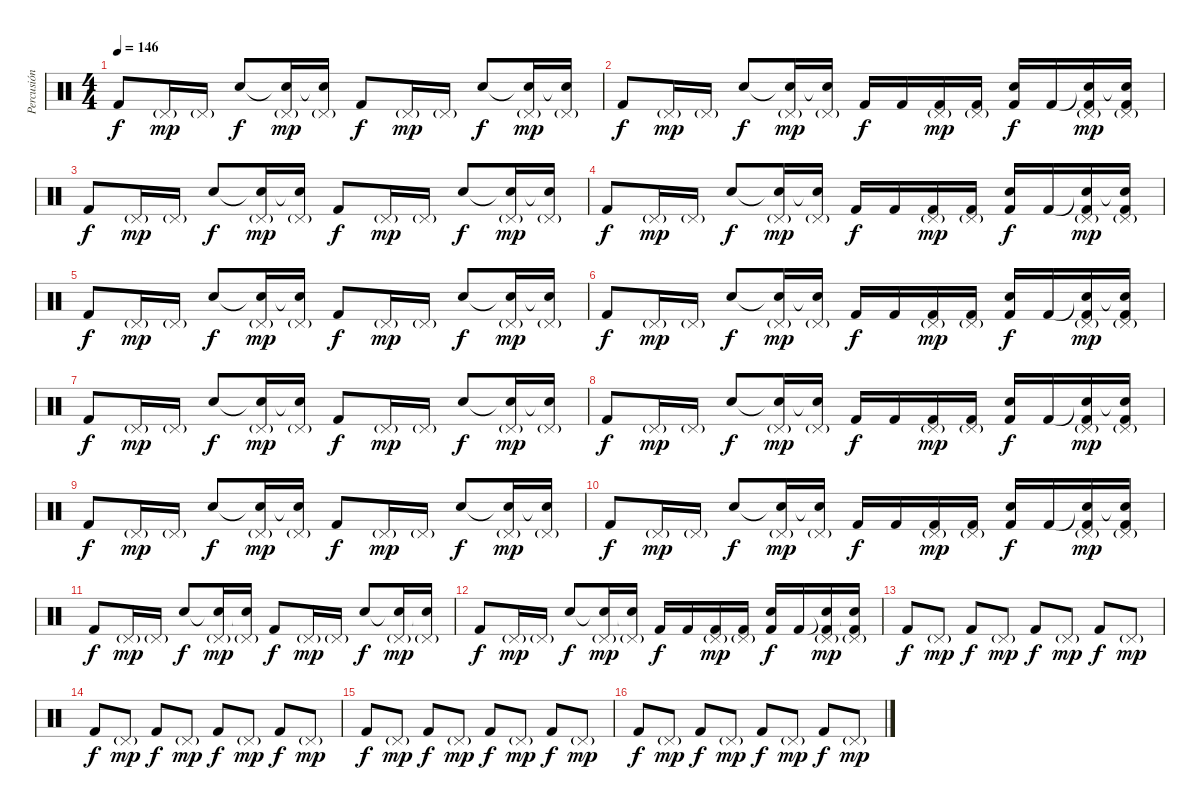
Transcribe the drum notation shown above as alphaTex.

\track ("Percusión" "Percusión") {instrument percussion}
\staff {score}
\articulation defaults
\ts (4 4)
\tempo 146
\clef neutral
\ks c "Kick (hit) 2".8{dy f} "Pedal Hi-Hat (hit)"{g}.16{dy mp} "Pedal Hi-Hat (hit)"{g}.16 "Snare (hit) 2".8{dy f}
("Snare (hit)"{t} "Pedal Hi-Hat (hit)"{g}).16{dy mp} ("Snare (hit)"{t} "Pedal Hi-Hat (hit)"{g}).16 "Kick (hit) 2".8{dy f} "Pedal Hi-Hat (hit)"{g}.16{dy mp} "Pedal Hi-Hat (hit)"{g}.16 "Snare (hit) 2".8{dy f} ("Snare (hit)"{t} "Pedal Hi-Hat (hit)"{g}).16{dy mp} ("Snare (hit)"{t} "Pedal Hi-Hat (hit)"{g}).16 |
"Kick (hit) 2".8{dy f} "Pedal Hi-Hat (hit)"{g}.16{dy mp} "Pedal Hi-Hat (hit)"{g}.16 "Snare (hit) 2".8{dy f} ("Snare (hit)"{t} "Pedal Hi-Hat (hit)"{g}).16{dy mp} ("Snare (hit)"{t} "Pedal Hi-Hat (hit)"{g}).16 "Kick (hit) 2".16{dy f} "Kick (hit) 2".16 ("Pedal Hi-Hat (hit)"{g} "Kick (hit) 2").16{dy mp} ("Pedal Hi-Hat (hit)"{g} "Kick (hit) 2").16 ("Snare (hit) 2" "Kick (hit) 2").16{dy f} "Kick (hit) 2".16 ("Snare (hit)"{t} "Pedal Hi-Hat (hit)"{g} "Kick (hit) 2").16{dy mp} ("Snare (hit)"{t} "Pedal Hi-Hat (hit)"{g} "Kick (hit) 2").16 |
"Kick (hit) 2".8{dy f} "Pedal Hi-Hat (hit)"{g}.16{dy mp} "Pedal Hi-Hat (hit)"{g}.16 "Snare (hit) 2".8{dy f} ("Snare (hit)"{t} "Pedal Hi-Hat (hit)"{g}).16{dy mp} ("Snare (hit)"{t} "Pedal Hi-Hat (hit)"{g}).16 "Kick (hit) 2".8{dy f} "Pedal Hi-Hat (hit)"{g}.16{dy mp} "Pedal Hi-Hat (hit)"{g}.16 "Snare (hit) 2".8{dy f} ("Snare (hit)"{t} "Pedal Hi-Hat (hit)"{g}).16{dy mp} ("Snare (hit)"{t} "Pedal Hi-Hat (hit)"{g}).16 |
"Kick (hit) 2".8{dy f} "Pedal Hi-Hat (hit)"{g}.16{dy mp} "Pedal Hi-Hat (hit)"{g}.16 "Snare (hit) 2".8{dy f} ("Snare (hit)"{t} "Pedal Hi-Hat (hit)"{g}).16{dy mp} ("Snare (hit)"{t} "Pedal Hi-Hat (hit)"{g}).16 "Kick (hit) 2".16{dy f} "Kick (hit) 2".16 ("Pedal Hi-Hat (hit)"{g} "Kick (hit) 2").16{dy mp} ("Pedal Hi-Hat (hit)"{g} "Kick (hit) 2").16 ("Snare (hit) 2" "Kick (hit) 2").16{dy f} "Kick (hit) 2".16 ("Snare (hit)"{t} "Pedal Hi-Hat (hit)"{g} "Kick (hit) 2").16{dy mp} ("Snare (hit)"{t} "Pedal Hi-Hat (hit)"{g} "Kick (hit) 2").16 |
"Kick (hit) 2".8{dy f} "Pedal Hi-Hat (hit)"{g}.16{dy mp} "Pedal Hi-Hat (hit)"{g}.16 "Snare (hit) 2".8{dy f} ("Snare (hit)"{t} "Pedal Hi-Hat (hit)"{g}).16{dy mp} ("Snare (hit)"{t} "Pedal Hi-Hat (hit)"{g}).16 "Kick (hit) 2".8{dy f} "Pedal Hi-Hat (hit)"{g}.16{dy mp} "Pedal Hi-Hat (hit)"{g}.16 "Snare (hit) 2".8{dy f} ("Snare (hit)"{t} "Pedal Hi-Hat (hit)"{g}).16{dy mp} ("Snare (hit)"{t} "Pedal Hi-Hat (hit)"{g}).16 |
"Kick (hit) 2".8{dy f} "Pedal Hi-Hat (hit)"{g}.16{dy mp} "Pedal Hi-Hat (hit)"{g}.16 "Snare (hit) 2".8{dy f} ("Snare (hit)"{t} "Pedal Hi-Hat (hit)"{g}).16{dy mp} ("Snare (hit)"{t} "Pedal Hi-Hat (hit)"{g}).16 "Kick (hit) 2".16{dy f} "Kick (hit) 2".16 ("Pedal Hi-Hat (hit)"{g} "Kick (hit) 2").16{dy mp} ("Pedal Hi-Hat (hit)"{g} "Kick (hit) 2").16 ("Snare (hit) 2" "Kick (hit) 2").16{dy f} "Kick (hit) 2".16 ("Snare (hit)"{t} "Pedal Hi-Hat (hit)"{g} "Kick (hit) 2").16{dy mp} ("Snare (hit)"{t} "Pedal Hi-Hat (hit)"{g} "Kick (hit) 2").16 |
"Kick (hit) 2".8{dy f} "Pedal Hi-Hat (hit)"{g}.16{dy mp} "Pedal Hi-Hat (hit)"{g}.16 "Snare (hit) 2".8{dy f} ("Snare (hit)"{t} "Pedal Hi-Hat (hit)"{g}).16{dy mp} ("Snare (hit)"{t} "Pedal Hi-Hat (hit)"{g}).16 "Kick (hit) 2".8{dy f} "Pedal Hi-Hat (hit)"{g}.16{dy mp} "Pedal Hi-Hat (hit)"{g}.16 "Snare (hit) 2".8{dy f} ("Snare (hit)"{t} "Pedal Hi-Hat (hit)"{g}).16{dy mp} ("Snare (hit)"{t} "Pedal Hi-Hat (hit)"{g}).16 |
"Kick (hit) 2".8{dy f} "Pedal Hi-Hat (hit)"{g}.16{dy mp} "Pedal Hi-Hat (hit)"{g}.16 "Snare (hit) 2".8{dy f} ("Snare (hit)"{t} "Pedal Hi-Hat (hit)"{g}).16{dy mp} ("Snare (hit)"{t} "Pedal Hi-Hat (hit)"{g}).16 "Kick (hit) 2".16{dy f} "Kick (hit) 2".16 ("Pedal Hi-Hat (hit)"{g} "Kick (hit) 2").16{dy mp} ("Pedal Hi-Hat (hit)"{g} "Kick (hit) 2").16 ("Snare (hit) 2" "Kick (hit) 2").16{dy f} "Kick (hit) 2".16 ("Snare (hit)"{t} "Pedal Hi-Hat (hit)"{g} "Kick (hit) 2").16{dy mp} ("Snare (hit)"{t} "Pedal Hi-Hat (hit)"{g} "Kick (hit) 2").16 |
"Kick (hit) 2".8{dy f} "Pedal Hi-Hat (hit)"{g}.16{dy mp} "Pedal Hi-Hat (hit)"{g}.16 "Snare (hit) 2".8{dy f} ("Snare (hit)"{t} "Pedal Hi-Hat (hit)"{g}).16{dy mp} ("Snare (hit)"{t} "Pedal Hi-Hat (hit)"{g}).16 "Kick (hit) 2".8{dy f} "Pedal Hi-Hat (hit)"{g}.16{dy mp} "Pedal Hi-Hat (hit)"{g}.16 "Snare (hit) 2".8{dy f} ("Snare (hit)"{t} "Pedal Hi-Hat (hit)"{g}).16{dy mp} ("Snare (hit)"{t} "Pedal Hi-Hat (hit)"{g}).16 |
"Kick (hit) 2".8{dy f} "Pedal Hi-Hat (hit)"{g}.16{dy mp} "Pedal Hi-Hat (hit)"{g}.16 "Snare (hit) 2".8{dy f} ("Snare (hit)"{t} "Pedal Hi-Hat (hit)"{g}).16{dy mp} ("Snare (hit)"{t} "Pedal Hi-Hat (hit)"{g}).16 "Kick (hit) 2".16{dy f} "Kick (hit) 2".16 ("Pedal Hi-Hat (hit)"{g} "Kick (hit) 2").16{dy mp} ("Pedal Hi-Hat (hit)"{g} "Kick (hit) 2").16 ("Snare (hit) 2" "Kick (hit) 2").16{dy f} "Kick (hit) 2".16 ("Snare (hit)"{t} "Pedal Hi-Hat (hit)"{g} "Kick (hit) 2").16{dy mp} ("Snare (hit)"{t} "Pedal Hi-Hat (hit)"{g} "Kick (hit) 2").16 |
"Kick (hit) 2".8{dy f} "Pedal Hi-Hat (hit)"{g}.16{dy mp} "Pedal Hi-Hat (hit)"{g}.16 "Snare (hit) 2".8{dy f} ("Snare (hit)"{t} "Pedal Hi-Hat (hit)"{g}).16{dy mp} ("Snare (hit)"{t} "Pedal Hi-Hat (hit)"{g}).16 "Kick (hit) 2".8{dy f} "Pedal Hi-Hat (hit)"{g}.16{dy mp} "Pedal Hi-Hat (hit)"{g}.16 "Snare (hit) 2".8{dy f} ("Snare (hit)"{t} "Pedal Hi-Hat (hit)"{g}).16{dy mp} ("Snare (hit)"{t} "Pedal Hi-Hat (hit)"{g}).16 |
"Kick (hit) 2".8{dy f} "Pedal Hi-Hat (hit)"{g}.16{dy mp} "Pedal Hi-Hat (hit)"{g}.16 "Snare (hit) 2".8{dy f} ("Snare (hit)"{t} "Pedal Hi-Hat (hit)"{g}).16{dy mp} ("Snare (hit)"{t} "Pedal Hi-Hat (hit)"{g}).16 "Kick (hit) 2".16{dy f} "Kick (hit) 2".16 ("Pedal Hi-Hat (hit)"{g} "Kick (hit) 2").16{dy mp} ("Pedal Hi-Hat (hit)"{g} "Kick (hit) 2").16 ("Snare (hit) 2" "Kick (hit) 2").16{dy f} "Kick (hit) 2".16 ("Snare (hit)"{t} "Pedal Hi-Hat (hit)"{g} "Kick (hit) 2").16{dy mp} ("Snare (hit)"{t} "Pedal Hi-Hat (hit)"{g} "Kick (hit) 2").16 |
"Kick (hit) 2".8{dy f} "Pedal Hi-Hat (hit)"{g}.8{dy mp} "Kick (hit) 2".8{dy f} "Pedal Hi-Hat (hit)"{g}.8{dy mp} "Kick (hit) 2".8{dy f} "Pedal Hi-Hat (hit)"{g}.8{dy mp} "Kick (hit) 2".8{dy f} "Pedal Hi-Hat (hit)"{g}.8{dy mp} |
"Kick (hit) 2".8{dy f} "Pedal Hi-Hat (hit)"{g}.8{dy mp} "Kick (hit) 2".8{dy f} "Pedal Hi-Hat (hit)"{g}.8{dy mp} "Kick (hit) 2".8{dy f} "Pedal Hi-Hat (hit)"{g}.8{dy mp} "Kick (hit) 2".8{dy f} "Pedal Hi-Hat (hit)"{g}.8{dy mp} |
"Kick (hit) 2".8{dy f} "Pedal Hi-Hat (hit)"{g}.8{dy mp} "Kick (hit) 2".8{dy f} "Pedal Hi-Hat (hit)"{g}.8{dy mp} "Kick (hit) 2".8{dy f} "Pedal Hi-Hat (hit)"{g}.8{dy mp} "Kick (hit) 2".8{dy f} "Pedal Hi-Hat (hit)"{g}.8{dy mp} |
"Kick (hit) 2".8{dy f} "Pedal Hi-Hat (hit)"{g}.8{dy mp} "Kick (hit) 2".8{dy f} "Pedal Hi-Hat (hit)"{g}.8{dy mp} "Kick (hit) 2".8{dy f} "Pedal Hi-Hat (hit)"{g}.8{dy mp} "Kick (hit) 2".8{dy f} "Pedal Hi-Hat (hit)"{g}.8{dy mp}
